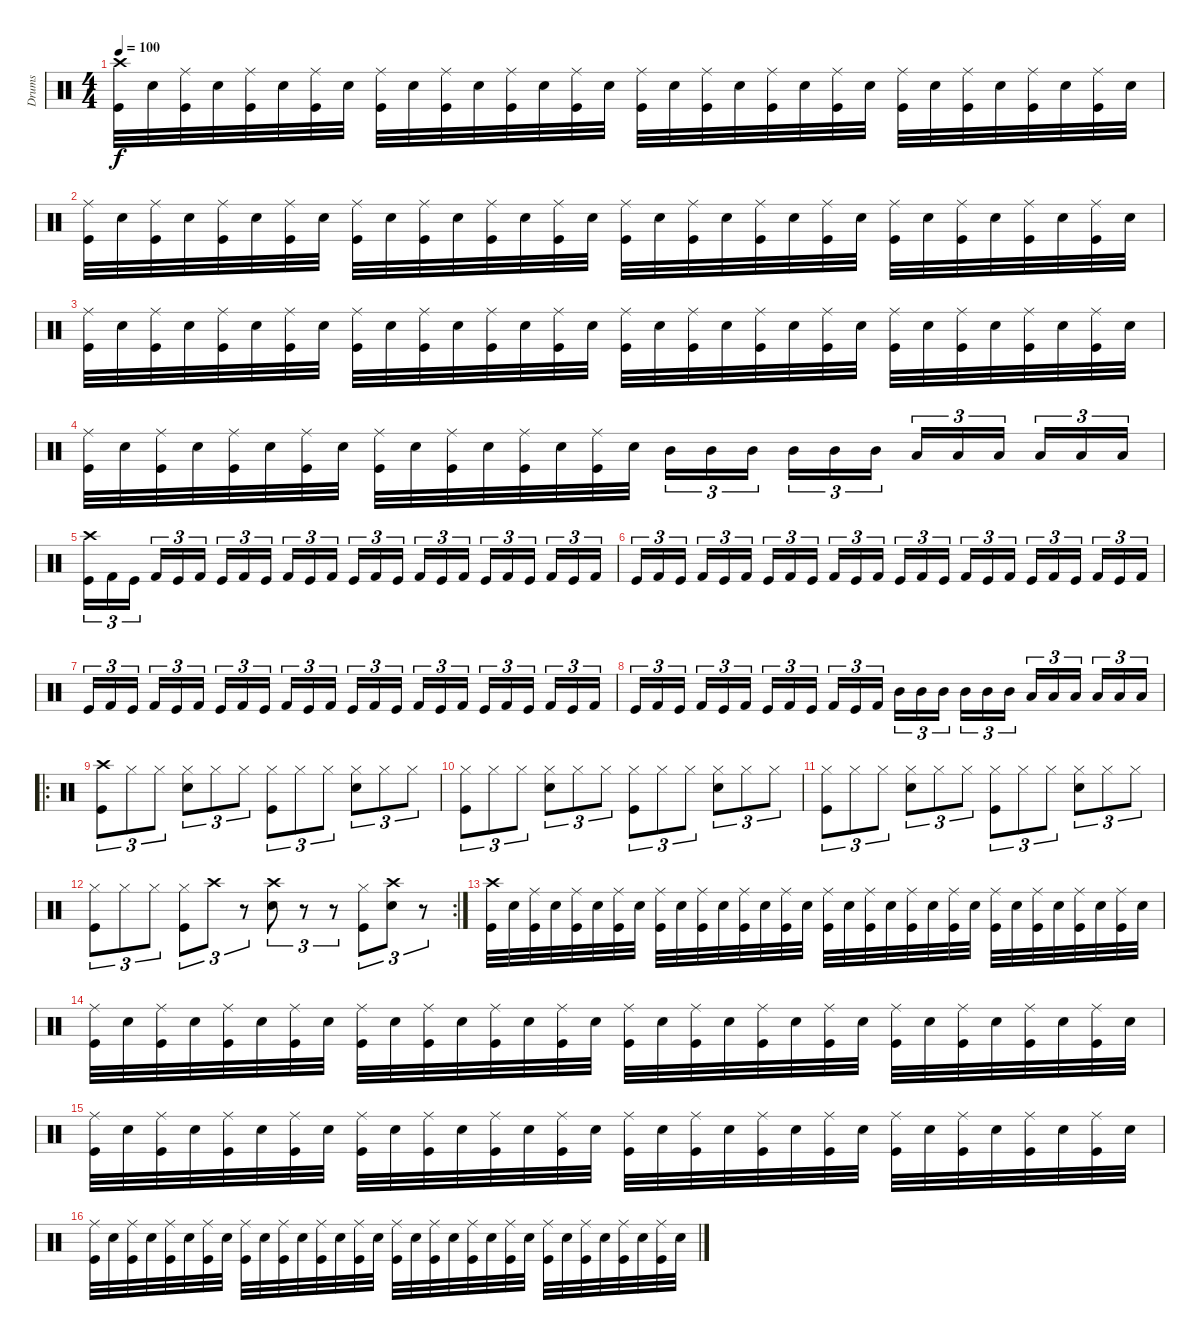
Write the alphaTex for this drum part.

\track ("Drums" "Drums") {instrument percussion}
\staff {score}
\articulation defaults
\ts (4 4)
\tempo 100
\clef neutral
\ks c
("Crash high (hit)" "Kick (hit)").32{dy f} "Snare (hit) 2".32 ("Ride (middle)" "Kick (hit)").32 "Snare (hit) 2".32 ("Ride (middle)" "Kick (hit)").32 "Snare (hit) 2".32 ("Ride (middle)" "Kick (hit)").32 "Snare (hit) 2".32 ("Ride (middle)" "Kick (hit)").32 "Snare (hit) 2".32 ("Ride (middle)" "Kick (hit)").32 "Snare (hit) 2".32 ("Ride (middle)" "Kick (hit)").32 "Snare (hit) 2".32 ("Ride (middle)" "Kick (hit)").32 "Snare (hit) 2".32 ("Ride (middle)" "Kick (hit)").32 "Snare (hit) 2".32 ("Ride (middle)" "Kick (hit)").32 "Snare (hit) 2".32 ("Ride (middle)" "Kick (hit)").32 "Snare (hit) 2".32 ("Ride (middle)" "Kick (hit)").32 "Snare (hit) 2".32 ("Ride (middle)" "Kick (hit)").32 "Snare (hit) 2".32 ("Ride (middle)" "Kick (hit)").32 "Snare (hit) 2".32 ("Ride (middle)" "Kick (hit)").32 "Snare (hit) 2".32 ("Ride (middle)" "Kick (hit)").32 "Snare (hit) 2".32 |
("Ride (middle)" "Kick (hit)").32 "Snare (hit) 2".32 ("Ride (middle)" "Kick (hit)").32 "Snare (hit) 2".32 ("Ride (middle)" "Kick (hit)").32 "Snare (hit) 2".32 ("Ride (middle)" "Kick (hit)").32 "Snare (hit) 2".32 ("Ride (middle)" "Kick (hit)").32 "Snare (hit) 2".32 ("Ride (middle)" "Kick (hit)").32 "Snare (hit) 2".32 ("Ride (middle)" "Kick (hit)").32 "Snare (hit) 2".32 ("Ride (middle)" "Kick (hit)").32 "Snare (hit) 2".32 ("Ride (middle)" "Kick (hit)").32 "Snare (hit) 2".32 ("Ride (middle)" "Kick (hit)").32 "Snare (hit) 2".32 ("Ride (middle)" "Kick (hit)").32 "Snare (hit) 2".32 ("Ride (middle)" "Kick (hit)").32 "Snare (hit) 2".32 ("Ride (middle)" "Kick (hit)").32 "Snare (hit) 2".32 ("Ride (middle)" "Kick (hit)").32 "Snare (hit) 2".32 ("Ride (middle)" "Kick (hit)").32 "Snare (hit) 2".32 ("Ride (middle)" "Kick (hit)").32 "Snare (hit) 2".32 |
("Ride (middle)" "Kick (hit)").32 "Snare (hit) 2".32 ("Ride (middle)" "Kick (hit)").32 "Snare (hit) 2".32 ("Ride (middle)" "Kick (hit)").32 "Snare (hit) 2".32 ("Ride (middle)" "Kick (hit)").32 "Snare (hit) 2".32 ("Ride (middle)" "Kick (hit)").32 "Snare (hit) 2".32 ("Ride (middle)" "Kick (hit)").32 "Snare (hit) 2".32 ("Ride (middle)" "Kick (hit)").32 "Snare (hit) 2".32 ("Ride (middle)" "Kick (hit)").32 "Snare (hit) 2".32 ("Ride (middle)" "Kick (hit)").32 "Snare (hit) 2".32 ("Ride (middle)" "Kick (hit)").32 "Snare (hit) 2".32 ("Ride (middle)" "Kick (hit)").32 "Snare (hit) 2".32 ("Ride (middle)" "Kick (hit)").32 "Snare (hit) 2".32 ("Ride (middle)" "Kick (hit)").32 "Snare (hit) 2".32 ("Ride (middle)" "Kick (hit)").32 "Snare (hit) 2".32 ("Ride (middle)" "Kick (hit)").32 "Snare (hit) 2".32 ("Ride (middle)" "Kick (hit)").32 "Snare (hit) 2".32 |
("Ride (middle)" "Kick (hit)").32 "Snare (hit) 2".32 ("Ride (middle)" "Kick (hit)").32 "Snare (hit) 2".32 ("Ride (middle)" "Kick (hit)").32 "Snare (hit) 2".32 ("Ride (middle)" "Kick (hit)").32 "Snare (hit) 2".32 ("Ride (middle)" "Kick (hit)").32 "Snare (hit) 2".32 ("Ride (middle)" "Kick (hit)").32 "Snare (hit) 2".32 ("Ride (middle)" "Kick (hit)").32 "Snare (hit) 2".32 ("Ride (middle)" "Kick (hit)").32 "Snare (hit) 2".32 "Mid Tom (hit)".16{tu (3 2)} "Mid Tom (hit)".16{tu (3 2)} "Mid Tom (hit)".16{tu (3 2)} "Mid Tom (hit)".16{tu (3 2)} "Mid Tom (hit)".16{tu (3 2)} "Mid Tom (hit)".16{tu (3 2)} "Low Floor Tom (hit)".16{tu (3 2)} "Low Floor Tom (hit)".16{tu (3 2)} "Low Floor Tom (hit)".16{tu (3 2)} "Low Floor Tom (hit)".16{tu (3 2)} "Low Floor Tom (hit)".16{tu (3 2)} "Low Floor Tom (hit)".16{tu (3 2)} |
("Crash high (hit)" "Kick (hit)").16{tu (3 2)} "Kick (hit) 2".16{tu (3 2)} "Kick (hit)".16{tu (3 2)} "Kick (hit) 2".16{tu (3 2)} "Kick (hit)".16{tu (3 2)} "Kick (hit) 2".16{tu (3 2)} "Kick (hit)".16{tu (3 2)} "Kick (hit) 2".16{tu (3 2)} "Kick (hit)".16{tu (3 2)} "Kick (hit) 2".16{tu (3 2)} "Kick (hit)".16{tu (3 2)} "Kick (hit) 2".16{tu (3 2)} "Kick (hit)".16{tu (3 2)} "Kick (hit) 2".16{tu (3 2)} "Kick (hit)".16{tu (3 2)} "Kick (hit) 2".16{tu (3 2)} "Kick (hit)".16{tu (3 2)} "Kick (hit) 2".16{tu (3 2)} "Kick (hit)".16{tu (3 2)} "Kick (hit) 2".16{tu (3 2)} "Kick (hit)".16{tu (3 2)} "Kick (hit) 2".16{tu (3 2)} "Kick (hit)".16{tu (3 2)} "Kick (hit) 2".16{tu (3 2)} |
"Kick (hit)".16{tu (3 2)} "Kick (hit) 2".16{tu (3 2)} "Kick (hit)".16{tu (3 2)} "Kick (hit) 2".16{tu (3 2)} "Kick (hit)".16{tu (3 2)} "Kick (hit) 2".16{tu (3 2)} "Kick (hit)".16{tu (3 2)} "Kick (hit) 2".16{tu (3 2)} "Kick (hit)".16{tu (3 2)} "Kick (hit) 2".16{tu (3 2)} "Kick (hit)".16{tu (3 2)} "Kick (hit) 2".16{tu (3 2)} "Kick (hit)".16{tu (3 2)} "Kick (hit) 2".16{tu (3 2)} "Kick (hit)".16{tu (3 2)} "Kick (hit) 2".16{tu (3 2)} "Kick (hit)".16{tu (3 2)} "Kick (hit) 2".16{tu (3 2)} "Kick (hit)".16{tu (3 2)} "Kick (hit) 2".16{tu (3 2)} "Kick (hit)".16{tu (3 2)} "Kick (hit) 2".16{tu (3 2)} "Kick (hit)".16{tu (3 2)} "Kick (hit) 2".16{tu (3 2)} |
"Kick (hit)".16{tu (3 2)} "Kick (hit) 2".16{tu (3 2)} "Kick (hit)".16{tu (3 2)} "Kick (hit) 2".16{tu (3 2)} "Kick (hit)".16{tu (3 2)} "Kick (hit) 2".16{tu (3 2)} "Kick (hit)".16{tu (3 2)} "Kick (hit) 2".16{tu (3 2)} "Kick (hit)".16{tu (3 2)} "Kick (hit) 2".16{tu (3 2)} "Kick (hit)".16{tu (3 2)} "Kick (hit) 2".16{tu (3 2)} "Kick (hit)".16{tu (3 2)} "Kick (hit) 2".16{tu (3 2)} "Kick (hit)".16{tu (3 2)} "Kick (hit) 2".16{tu (3 2)} "Kick (hit)".16{tu (3 2)} "Kick (hit) 2".16{tu (3 2)} "Kick (hit)".16{tu (3 2)} "Kick (hit) 2".16{tu (3 2)} "Kick (hit)".16{tu (3 2)} "Kick (hit) 2".16{tu (3 2)} "Kick (hit)".16{tu (3 2)} "Kick (hit) 2".16{tu (3 2)} |
"Kick (hit)".16{tu (3 2)} "Kick (hit) 2".16{tu (3 2)} "Kick (hit)".16{tu (3 2)} "Kick (hit) 2".16{tu (3 2)} "Kick (hit)".16{tu (3 2)} "Kick (hit) 2".16{tu (3 2)} "Kick (hit)".16{tu (3 2)} "Kick (hit) 2".16{tu (3 2)} "Kick (hit)".16{tu (3 2)} "Kick (hit) 2".16{tu (3 2)} "Kick (hit)".16{tu (3 2)} "Kick (hit) 2".16{tu (3 2)} "Mid Tom (hit)".16{tu (3 2)} "Mid Tom (hit)".16{tu (3 2)} "Mid Tom (hit)".16{tu (3 2)} "Mid Tom (hit)".16{tu (3 2)} "Mid Tom (hit)".16{tu (3 2)} "Mid Tom (hit)".16{tu (3 2)} "Low Floor Tom (hit)".16{tu (3 2)} "Low Floor Tom (hit)".16{tu (3 2)} "Low Floor Tom (hit)".16{tu (3 2)} "Low Floor Tom (hit)".16{tu (3 2)} "Low Floor Tom (hit)".16{tu (3 2)} "Low Floor Tom (hit)".16{tu (3 2)} |
\ro
("Crash high (hit)" "Kick (hit)").8{tu (3 2)} "Hi-Hat (closed)".8{tu (3 2)} "Hi-Hat (closed)".8{tu (3 2)} ("Hi-Hat (closed)" "Snare (hit) 2").8{tu (3 2)} "Hi-Hat (closed)".8{tu (3 2)} "Hi-Hat (closed)".8{tu (3 2)} ("Hi-Hat (closed)" "Kick (hit)").8{tu (3 2)} "Hi-Hat (closed)".8{tu (3 2)} "Hi-Hat (closed)".8{tu (3 2)} ("Hi-Hat (closed)" "Snare (hit) 2").8{tu (3 2)} "Hi-Hat (closed)".8{tu (3 2)} "Hi-Hat (closed)".8{tu (3 2)} |
("Hi-Hat (closed)" "Kick (hit)").8{tu (3 2)} "Hi-Hat (closed)".8{tu (3 2)} "Hi-Hat (closed)".8{tu (3 2)} ("Hi-Hat (closed)" "Snare (hit) 2").8{tu (3 2)} "Hi-Hat (closed)".8{tu (3 2)} "Hi-Hat (closed)".8{tu (3 2)} ("Hi-Hat (closed)" "Kick (hit)").8{tu (3 2)} "Hi-Hat (closed)".8{tu (3 2)} "Hi-Hat (closed)".8{tu (3 2)} ("Hi-Hat (closed)" "Snare (hit) 2").8{tu (3 2)} "Hi-Hat (closed)".8{tu (3 2)} "Hi-Hat (closed)".8{tu (3 2)} |
("Hi-Hat (closed)" "Kick (hit)").8{tu (3 2)} "Hi-Hat (closed)".8{tu (3 2)} "Hi-Hat (closed)".8{tu (3 2)} ("Hi-Hat (closed)" "Snare (hit) 2").8{tu (3 2)} "Hi-Hat (closed)".8{tu (3 2)} "Hi-Hat (closed)".8{tu (3 2)} ("Hi-Hat (closed)" "Kick (hit)").8{tu (3 2)} "Hi-Hat (closed)".8{tu (3 2)} "Hi-Hat (closed)".8{tu (3 2)} ("Hi-Hat (closed)" "Snare (hit) 2").8{tu (3 2)} "Hi-Hat (closed)".8{tu (3 2)} "Hi-Hat (closed)".8{tu (3 2)} |
\rc 2
("Hi-Hat (closed)" "Kick (hit)").8{tu (3 2)} "Hi-Hat (closed)".8{tu (3 2)} "Hi-Hat (closed)".8{tu (3 2)} ("Hi-Hat (closed)" "Kick (hit)").8{tu (3 2)} "Crash high (hit)".8{tu (3 2)} r.8{tu (3 2)} ("Crash high (hit)" "Snare (hit) 2").8{tu (3 2)} r.8{tu (3 2)} r.8{tu (3 2)} ("Hi-Hat (closed)" "Kick (hit)").8{tu (3 2)} ("Crash high (hit)" "Snare (hit) 2").8{tu (3 2)} r.8{tu (3 2)} |
("Crash high (hit)" "Kick (hit)").32 "Snare (hit) 2".32 ("Ride (middle)" "Kick (hit)").32 "Snare (hit) 2".32 ("Ride (middle)" "Kick (hit)").32 "Snare (hit) 2".32 ("Ride (middle)" "Kick (hit)").32 "Snare (hit) 2".32 ("Ride (middle)" "Kick (hit)").32 "Snare (hit) 2".32 ("Ride (middle)" "Kick (hit)").32 "Snare (hit) 2".32 ("Ride (middle)" "Kick (hit)").32 "Snare (hit) 2".32 ("Ride (middle)" "Kick (hit)").32 "Snare (hit) 2".32 ("Ride (middle)" "Kick (hit)").32 "Snare (hit) 2".32 ("Ride (middle)" "Kick (hit)").32 "Snare (hit) 2".32 ("Ride (middle)" "Kick (hit)").32 "Snare (hit) 2".32 ("Ride (middle)" "Kick (hit)").32 "Snare (hit) 2".32 ("Ride (middle)" "Kick (hit)").32 "Snare (hit) 2".32 ("Ride (middle)" "Kick (hit)").32 "Snare (hit) 2".32 ("Ride (middle)" "Kick (hit)").32 "Snare (hit) 2".32 ("Ride (middle)" "Kick (hit)").32 "Snare (hit) 2".32 |
("Ride (middle)" "Kick (hit)").32 "Snare (hit) 2".32 ("Ride (middle)" "Kick (hit)").32 "Snare (hit) 2".32 ("Ride (middle)" "Kick (hit)").32 "Snare (hit) 2".32 ("Ride (middle)" "Kick (hit)").32 "Snare (hit) 2".32 ("Ride (middle)" "Kick (hit)").32 "Snare (hit) 2".32 ("Ride (middle)" "Kick (hit)").32 "Snare (hit) 2".32 ("Ride (middle)" "Kick (hit)").32 "Snare (hit) 2".32 ("Ride (middle)" "Kick (hit)").32 "Snare (hit) 2".32 ("Ride (middle)" "Kick (hit)").32 "Snare (hit) 2".32 ("Ride (middle)" "Kick (hit)").32 "Snare (hit) 2".32 ("Ride (middle)" "Kick (hit)").32 "Snare (hit) 2".32 ("Ride (middle)" "Kick (hit)").32 "Snare (hit) 2".32 ("Ride (middle)" "Kick (hit)").32 "Snare (hit) 2".32 ("Ride (middle)" "Kick (hit)").32 "Snare (hit) 2".32 ("Ride (middle)" "Kick (hit)").32 "Snare (hit) 2".32 ("Ride (middle)" "Kick (hit)").32 "Snare (hit) 2".32 |
("Ride (middle)" "Kick (hit)").32 "Snare (hit) 2".32 ("Ride (middle)" "Kick (hit)").32 "Snare (hit) 2".32 ("Ride (middle)" "Kick (hit)").32 "Snare (hit) 2".32 ("Ride (middle)" "Kick (hit)").32 "Snare (hit) 2".32 ("Ride (middle)" "Kick (hit)").32 "Snare (hit) 2".32 ("Ride (middle)" "Kick (hit)").32 "Snare (hit) 2".32 ("Ride (middle)" "Kick (hit)").32 "Snare (hit) 2".32 ("Ride (middle)" "Kick (hit)").32 "Snare (hit) 2".32 ("Ride (middle)" "Kick (hit)").32 "Snare (hit) 2".32 ("Ride (middle)" "Kick (hit)").32 "Snare (hit) 2".32 ("Ride (middle)" "Kick (hit)").32 "Snare (hit) 2".32 ("Ride (middle)" "Kick (hit)").32 "Snare (hit) 2".32 ("Ride (middle)" "Kick (hit)").32 "Snare (hit) 2".32 ("Ride (middle)" "Kick (hit)").32 "Snare (hit) 2".32 ("Ride (middle)" "Kick (hit)").32 "Snare (hit) 2".32 ("Ride (middle)" "Kick (hit)").32 "Snare (hit) 2".32 |
("Ride (middle)" "Kick (hit)").32 "Snare (hit) 2".32 ("Ride (middle)" "Kick (hit)").32 "Snare (hit) 2".32 ("Ride (middle)" "Kick (hit)").32 "Snare (hit) 2".32 ("Ride (middle)" "Kick (hit)").32 "Snare (hit) 2".32 ("Ride (middle)" "Kick (hit)").32 "Snare (hit) 2".32 ("Ride (middle)" "Kick (hit)").32 "Snare (hit) 2".32 ("Ride (middle)" "Kick (hit)").32 "Snare (hit) 2".32 ("Ride (middle)" "Kick (hit)").32 "Snare (hit) 2".32 ("Ride (middle)" "Kick (hit)").32 "Snare (hit) 2".32 ("Ride (middle)" "Kick (hit)").32 "Snare (hit) 2".32 ("Ride (middle)" "Kick (hit)").32 "Snare (hit) 2".32 ("Ride (middle)" "Kick (hit)").32 "Snare (hit) 2".32 ("Ride (middle)" "Kick (hit)").32 "Snare (hit) 2".32 ("Ride (middle)" "Kick (hit)").32 "Snare (hit) 2".32 ("Ride (middle)" "Kick (hit)").32 "Snare (hit) 2".32 ("Ride (middle)" "Kick (hit)").32 "Snare (hit) 2".32
